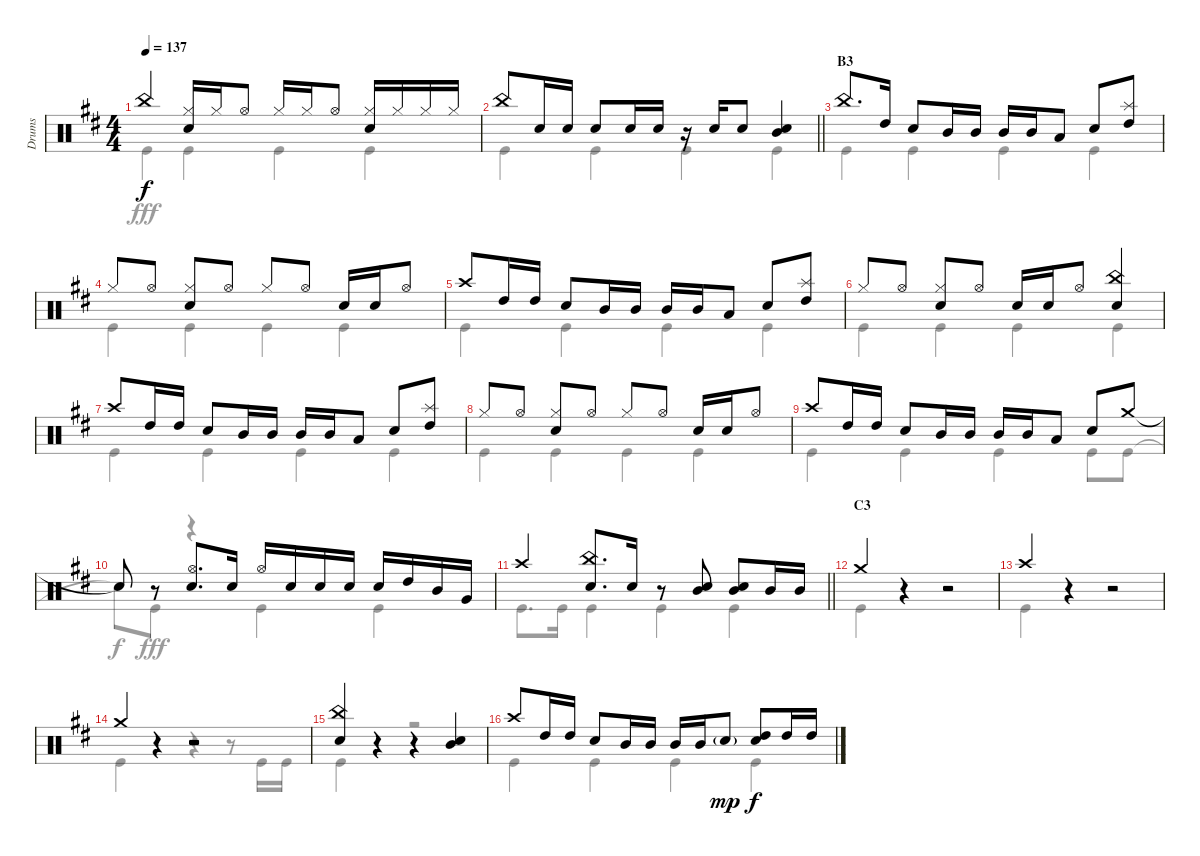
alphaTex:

\track ("Drums" "Drums") {instrument percussion}
\staff {score}
\articulation defaults
\voice
\ts (4 4)
\tempo 137
\clef neutral
\ks d "China (hit)".4{dy f}
("Hi-Hat (closed)" "Snare (hit) 2").16 "Hi-Hat (closed)".16 "Hi-Hat (open)".8 "Hi-Hat (closed)".16 "Hi-Hat (closed)".16 "Hi-Hat (open)".8 ("Hi-Hat (closed)" "Snare (hit) 2").16 "Hi-Hat (closed)".16 "Hi-Hat (closed)".16 "Hi-Hat (closed)".16 |
\barLineRight lightlight "China (hit)".8 "Snare (hit) 2".16 "Snare (hit) 2".16 "Snare (hit) 2".8 "Snare (hit) 2".16 "Snare (hit) 2".16
r.16 "Snare (hit) 2".16 "Snare (hit) 2".8 ("Snare (hit) 2" "Mid Tom (hit)").4 |
\section ("" "B3")
"China (hit)".8{d} "High Tom (hit)".16 "Snare (hit) 2".8 "Mid Tom (hit)".16 "Mid Tom (hit)".16 "Mid Tom (hit)".16 "Mid Tom (hit)".16 "Low Tom (hit)".8 "Snare (hit) 2".8 ("Splash (hit)" "High Tom (hit)").8 |
"Hi-Hat (closed)".8 "Hi-Hat (open)".8 ("Hi-Hat (closed)" "Snare (hit) 2").8 "Hi-Hat (open)".8 "Hi-Hat (closed)".8 "Hi-Hat (open)".8 "Snare (hit) 2".16 "Snare (hit) 2".16 "Hi-Hat (open)".8 |
"Crash high (hit)".8 "High Tom (hit)".16 "High Tom (hit)".16 "Snare (hit) 2".8 "Mid Tom (hit)".16 "Mid Tom (hit)".16 "Mid Tom (hit)".16 "Mid Tom (hit)".16 "Low Tom (hit)".8 "Snare (hit) 2".8 ("Splash (hit)" "High Tom (hit)").8 |
"Hi-Hat (closed)".8 "Hi-Hat (open)".8 ("Hi-Hat (closed)" "Snare (hit) 2").8 "Hi-Hat (open)".8 "Snare (hit) 2".16 "Snare (hit) 2".16 "Hi-Hat (open)".8 ("China (hit)" "Snare (hit) 2").4 |
"Crash high (hit)".8 "High Tom (hit)".16 "High Tom (hit)".16 "Snare (hit) 2".8 "Mid Tom (hit)".16 "Mid Tom (hit)".16 "Mid Tom (hit)".16 "Mid Tom (hit)".16 "Low Tom (hit)".8 "Snare (hit) 2".8 ("Splash (hit)" "High Tom (hit)").8 |
"Hi-Hat (closed)".8 "Hi-Hat (open)".8 ("Hi-Hat (closed)" "Snare (hit) 2").8 "Hi-Hat (open)".8 "Hi-Hat (closed)".8 "Hi-Hat (open)".8 "Snare (hit) 2".16 "Snare (hit) 2".16 "Hi-Hat (open)".8 |
"Crash high (hit)".8 "High Tom (hit)".16 "High Tom (hit)".16 "Snare (hit) 2".8 "Mid Tom (hit)".16 "Mid Tom (hit)".16 "Mid Tom (hit)".16 "Mid Tom (hit)".16 "Low Tom (hit)".8 "Snare (hit) 2".8 "Crash medium (hit)".8 |
"Snare (hit)"{t}.8 r.8 ("Hi-Hat (open)" "Snare (hit) 2").8{d} "Snare (hit) 2".16 "Hi-Hat (open)".16 "Snare (hit) 2".16 "Snare (hit) 2".16 "Snare (hit) 2".16 "Snare (hit) 2".16 "High Tom (hit)".16 "Mid Tom (hit)".16 "Very Low Tom (hit)".16 |
\barLineRight lightlight "Crash high (hit)".4
("China (hit)" "Snare (hit) 2").8{d} "Snare (hit) 2".16 r.8 ("Mid Tom (hit)" "Snare (hit) 2").8 ("Mid Tom (hit)" "Snare (hit) 2").8 "Mid Tom (hit)".16 "Mid Tom (hit)".16 |
\section ("" "C3")
"Crash medium (hit)".4 r.4 r.2 |
"Crash high (hit)".4 r.4 r.2 |
"Crash medium (hit)".4 r.4 r.2 |
("China (hit)" "Snare (hit) 2").4 r.4 r.4 ("Mid Tom (hit)" "Snare (hit) 2").4 |
"Crash high (hit)".8 "High Tom (hit)".16 "High Tom (hit)".16 "Snare (hit) 2".8 "Mid Tom (hit)".16 "Mid Tom (hit)".16 "Mid Tom (hit)".16 "Mid Tom (hit)".16 "Snare (hit) 2"{g}.8{dy mp} ("Snare (hit) 2" "High Tom (hit)").8{dy f} "High Tom (hit)".16 "High Tom (hit)".16
\voice
\clef neutral
\ottava regular
\simile none
\ks d "Kick (hit)".4{dy fff} "Kick (hit)".4 "Kick (hit)".4 "Kick (hit)".4
|
\barLineRight lightlight "Kick (hit)".4 "Kick (hit)".4 "Kick (hit)".4 "Kick (hit)".4
|
"Kick (hit)".4 "Kick (hit)".4 "Kick (hit)".4 "Kick (hit)".4 |
"Kick (hit)".4 "Kick (hit)".4 "Kick (hit)".4 "Kick (hit)".4 |
"Kick (hit)".4 "Kick (hit)".4 "Kick (hit)".4 "Kick (hit)".4 |
"Kick (hit)".4 "Kick (hit)".4 "Kick (hit)".4 "Kick (hit)".4 |
"Kick (hit)".4 "Kick (hit)".4 "Kick (hit)".4 "Kick (hit)".4 |
"Kick (hit)".4 "Kick (hit)".4 "Kick (hit)".4 "Kick (hit)".4 |
"Kick (hit)".4 "Kick (hit)".4 "Kick (hit)".4 "Kick (hit)".8 "Kick (hit)".8 |
"Snare (hit)"{t}.8{dy f} "Kick (hit)".8{dy fff} r.4 "Kick (hit)".4 "Kick (hit)".4 |
\barLineRight lightlight "Kick (hit)".8{d} "Kick (hit)".16 "Kick (hit)".4 "Kick (hit)".4 "Kick (hit)".4
|
"Kick (hit)".4 r.4 r.2 |
"Kick (hit)".4 r.4 r.2 |
"Kick (hit)".4 r.4 r.4 r.8 "Kick (hit)".16 "Kick (hit)".16 |
"Kick (hit)".4 r.4 r.2 |
"Kick (hit)".4 "Kick (hit)".4 "Kick (hit)".4 "Kick (hit)".4
